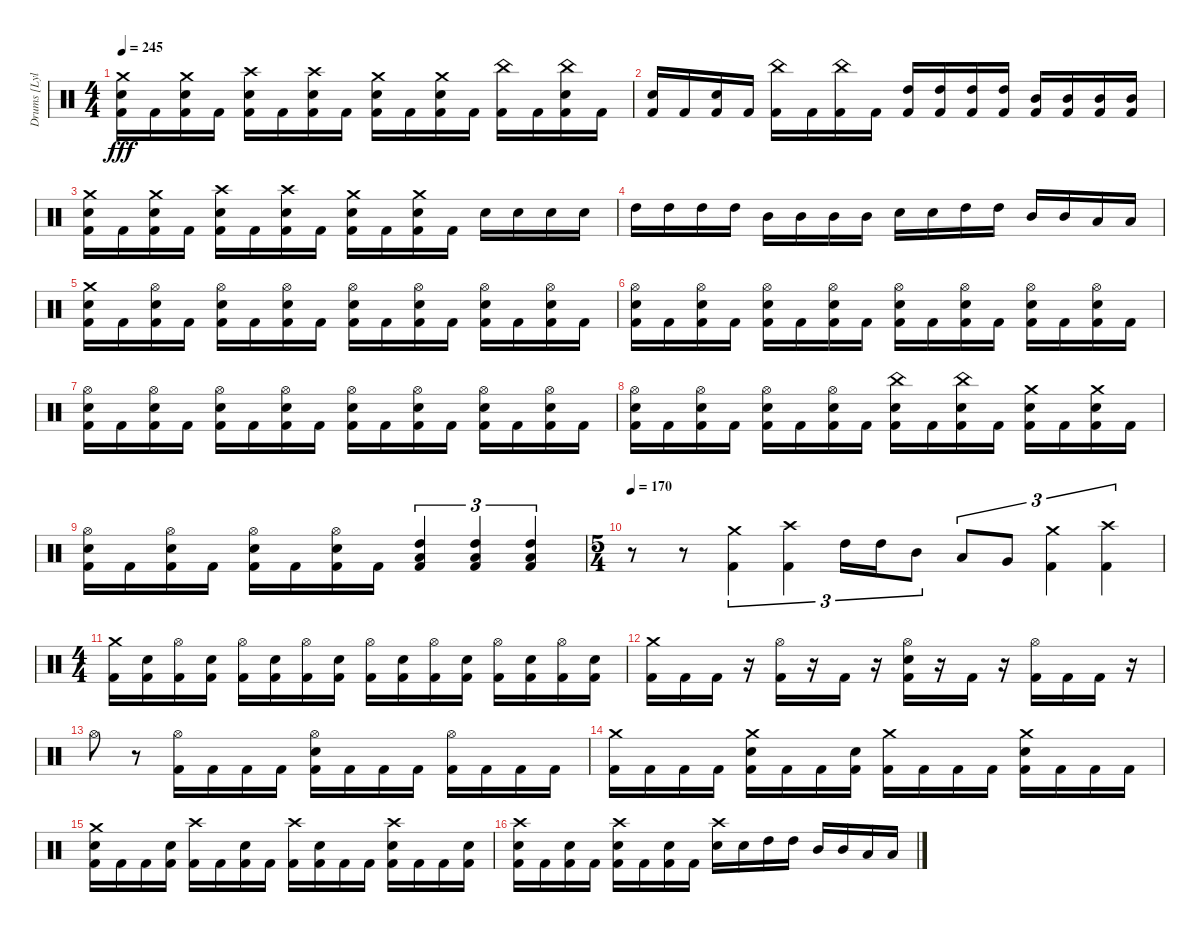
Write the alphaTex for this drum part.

\track ("Drums [Lyle Cooper]" "Drums [Lyl") {instrument percussion}
\staff {score}
\articulation defaults
\ts (4 4)
\tempo 245
\clef neutral
\ks c
("Crash medium (hit)" "Electric Snare (hit)" "Kick (hit) 2").16{dy fff} "Kick (hit) 2".16 ("Crash medium (hit)" "Electric Snare (hit)" "Kick (hit) 2").16 "Kick (hit) 2".16 ("Crash high (hit)" "Electric Snare (hit)" "Kick (hit) 2").16 "Kick (hit) 2".16 ("Crash high (hit)" "Electric Snare (hit)" "Kick (hit) 2").16 "Kick (hit) 2".16 ("Crash medium (hit)" "Electric Snare (hit)" "Kick (hit) 2").16 "Kick (hit) 2".16 ("Crash medium (hit)" "Electric Snare (hit)" "Kick (hit) 2").16 "Kick (hit) 2".16 ("China (hit)" "Kick (hit) 2").16 "Kick (hit) 2".16 ("China (hit)" "Electric Snare (hit)" "Kick (hit) 2").16 "Kick (hit) 2".16 |
("Electric Snare (hit)" "Kick (hit) 2").16 "Kick (hit) 2".16 ("Electric Snare (hit)" "Kick (hit) 2").16 "Kick (hit) 2".16 ("China (hit)" "Kick (hit) 2").16 "Kick (hit) 2".16 ("China (hit)" "Kick (hit) 2").16 "Kick (hit) 2".16 ("High Tom (hit)" "Kick (hit) 2").16 ("High Tom (hit)" "Kick (hit) 2").16 ("High Tom (hit)" "Kick (hit) 2").16 ("High Tom (hit)" "Kick (hit) 2").16 ("Mid Tom (hit)" "Kick (hit) 2").16 ("Mid Tom (hit)" "Kick (hit) 2").16 ("Mid Tom (hit)" "Kick (hit) 2").16 ("Mid Tom (hit)" "Kick (hit) 2").16 |
("Crash medium (hit)" "Electric Snare (hit)" "Kick (hit) 2").16 "Kick (hit) 2".16 ("Crash medium (hit)" "Electric Snare (hit)" "Kick (hit) 2").16 "Kick (hit) 2".16 ("Crash high (hit)" "Electric Snare (hit)" "Kick (hit) 2").16 "Kick (hit) 2".16 ("Crash high (hit)" "Electric Snare (hit)" "Kick (hit) 2").16 "Kick (hit) 2".16 ("Crash medium (hit)" "Electric Snare (hit)" "Kick (hit) 2").16 "Kick (hit) 2".16 ("Crash medium (hit)" "Electric Snare (hit)" "Kick (hit) 2").16 "Kick (hit) 2".16 "Electric Snare (hit)".16 "Electric Snare (hit)".16 "Electric Snare (hit)".16 "Electric Snare (hit)".16 |
"High Tom (hit)".16 "High Tom (hit)".16 "High Tom (hit)".16 "High Tom (hit)".16 "Mid Tom (hit)".16 "Mid Tom (hit)".16 "Mid Tom (hit)".16 "Mid Tom (hit)".16 "Electric Snare (hit)".16 "Electric Snare (hit)".16 "High Tom (hit)".16 "High Tom (hit)".16 "Mid Tom (hit)".16 "Mid Tom (hit)".16 "Low Tom (hit)".16 "Low Tom (hit)".16 |
("Crash medium (hit)" "Electric Snare (hit)" "Kick (hit) 2").16 "Kick (hit) 2".16 ("Hi-Hat (open)" "Electric Snare (hit)" "Kick (hit) 2").16 "Kick (hit) 2".16 ("Hi-Hat (open)" "Electric Snare (hit)" "Kick (hit) 2").16 "Kick (hit) 2".16 ("Hi-Hat (open)" "Electric Snare (hit)" "Kick (hit) 2").16 "Kick (hit) 2".16 ("Hi-Hat (open)" "Electric Snare (hit)" "Kick (hit) 2").16 "Kick (hit) 2".16 ("Hi-Hat (open)" "Electric Snare (hit)" "Kick (hit) 2").16 "Kick (hit) 2".16 ("Hi-Hat (open)" "Electric Snare (hit)" "Kick (hit) 2").16 "Kick (hit) 2".16 ("Hi-Hat (open)" "Electric Snare (hit)" "Kick (hit) 2").16 "Kick (hit) 2".16 |
("Hi-Hat (open)" "Electric Snare (hit)" "Kick (hit) 2").16 "Kick (hit) 2".16 ("Hi-Hat (open)" "Electric Snare (hit)" "Kick (hit) 2").16 "Kick (hit) 2".16 ("Hi-Hat (open)" "Electric Snare (hit)" "Kick (hit) 2").16 "Kick (hit) 2".16 ("Hi-Hat (open)" "Electric Snare (hit)" "Kick (hit) 2").16 "Kick (hit) 2".16 ("Hi-Hat (open)" "Electric Snare (hit)" "Kick (hit) 2").16 "Kick (hit) 2".16 ("Hi-Hat (open)" "Electric Snare (hit)" "Kick (hit) 2").16 "Kick (hit) 2".16 ("Hi-Hat (open)" "Electric Snare (hit)" "Kick (hit) 2").16 "Kick (hit) 2".16 ("Hi-Hat (open)" "Electric Snare (hit)" "Kick (hit) 2").16 "Kick (hit) 2".16 |
("Hi-Hat (open)" "Electric Snare (hit)" "Kick (hit) 2").16 "Kick (hit) 2".16 ("Hi-Hat (open)" "Electric Snare (hit)" "Kick (hit) 2").16 "Kick (hit) 2".16 ("Hi-Hat (open)" "Electric Snare (hit)" "Kick (hit) 2").16 "Kick (hit) 2".16 ("Hi-Hat (open)" "Electric Snare (hit)" "Kick (hit) 2").16 "Kick (hit) 2".16 ("Hi-Hat (open)" "Electric Snare (hit)" "Kick (hit) 2").16 "Kick (hit) 2".16 ("Hi-Hat (open)" "Electric Snare (hit)" "Kick (hit) 2").16 "Kick (hit) 2".16 ("Hi-Hat (open)" "Electric Snare (hit)" "Kick (hit) 2").16 "Kick (hit) 2".16 ("Hi-Hat (open)" "Electric Snare (hit)" "Kick (hit) 2").16 "Kick (hit) 2".16 |
("Hi-Hat (open)" "Electric Snare (hit)" "Kick (hit) 2").16 "Kick (hit) 2".16 ("Hi-Hat (open)" "Electric Snare (hit)" "Kick (hit) 2").16 "Kick (hit) 2".16 ("Hi-Hat (open)" "Electric Snare (hit)" "Kick (hit) 2").16 "Kick (hit) 2".16 ("Hi-Hat (open)" "Electric Snare (hit)" "Kick (hit) 2").16 "Kick (hit) 2".16 ("China (hit)" "Electric Snare (hit)" "Kick (hit) 2").16 "Kick (hit) 2".16 ("China (hit)" "Electric Snare (hit)" "Kick (hit) 2").16 "Kick (hit) 2".16 ("Crash medium (hit)" "Electric Snare (hit)" "Kick (hit) 2").16 "Kick (hit) 2".16 ("Crash medium (hit)" "Electric Snare (hit)" "Kick (hit) 2").16 "Kick (hit) 2".16 |
("Hi-Hat (open)" "Electric Snare (hit)" "Kick (hit) 2").16 "Kick (hit) 2".16 ("Hi-Hat (open)" "Electric Snare (hit)" "Kick (hit) 2").16 "Kick (hit) 2".16 ("Hi-Hat (open)" "Electric Snare (hit)" "Kick (hit) 2").16 "Kick (hit) 2".16 ("Hi-Hat (open)" "Electric Snare (hit)" "Kick (hit) 2").16 "Kick (hit) 2".16 ("Low Tom (hit)" "Kick (hit) 2" "High Tom (hit)").4{tu (3 2)} ("Low Tom (hit)" "Kick (hit) 2" "High Tom (hit)").4{tu (3 2)} ("Low Tom (hit)" "Kick (hit) 2" "High Tom (hit)").4{tu (3 2)} |
\ts (5 4)
\tempo 170
r.8 r.8 ("Crash medium (hit)" "Kick (hit) 2").4{tu (3 2)} ("Crash high (hit)" "Kick (hit) 2").4{tu (3 2)} "High Tom (hit)".16{tu (3 2)} "High Tom (hit)".16{tu (3 2)} "Mid Tom (hit)".8{tu (3 2)} "Low Tom (hit)".8{tu (3 2)} "Very Low Tom (hit)".8{tu (3 2)} ("Crash medium (hit)" "Kick (hit) 2").4{tu (3 2)} ("Crash high (hit)" "Kick (hit) 2").4{tu (3 2)} |
\ts (4 4)
("Crash medium (hit)" "Kick (hit) 2").16 ("Electric Snare (hit)" "Kick (hit) 2").16 ("Hi-Hat (open)" "Kick (hit) 2").16 ("Electric Snare (hit)" "Kick (hit) 2").16 ("Hi-Hat (open)" "Kick (hit) 2").16 ("Electric Snare (hit)" "Kick (hit) 2").16 ("Hi-Hat (open)" "Kick (hit) 2").16 ("Electric Snare (hit)" "Kick (hit) 2").16 ("Hi-Hat (open)" "Kick (hit) 2").16 ("Electric Snare (hit)" "Kick (hit) 2").16 ("Hi-Hat (open)" "Kick (hit) 2").16 ("Electric Snare (hit)" "Kick (hit) 2").16 ("Hi-Hat (open)" "Kick (hit) 2").16 ("Electric Snare (hit)" "Kick (hit) 2").16 ("Hi-Hat (open)" "Kick (hit) 2").16 ("Electric Snare (hit)" "Kick (hit) 2").16 |
("Crash medium (hit)" "Kick (hit) 2").16 "Kick (hit) 2".16 "Kick (hit) 2".16 r.16 ("Hi-Hat (open)" "Kick (hit) 2").16 r.16 "Kick (hit) 2".16 r.16 ("Hi-Hat (open)" "Electric Snare (hit)" "Kick (hit) 2").16 r.16 "Kick (hit) 2".16 r.16 ("Hi-Hat (open)" "Kick (hit) 2").16 "Kick (hit) 2".16 "Kick (hit) 2".16 r.16 |
"Hi-Hat (open)".8 r.8 ("Hi-Hat (open)" "Kick (hit) 2").16 "Kick (hit) 2".16 "Kick (hit) 2".16 "Kick (hit) 2".16 ("Hi-Hat (open)" "Electric Snare (hit)" "Kick (hit) 2").16 "Kick (hit) 2".16 "Kick (hit) 2".16 "Kick (hit) 2".16 ("Hi-Hat (open)" "Kick (hit) 2").16 "Kick (hit) 2".16 "Kick (hit) 2".16 "Kick (hit) 2".16 |
("Crash medium (hit)" "Kick (hit) 2").16 "Kick (hit) 2".16 "Kick (hit) 2".16 "Kick (hit) 2".16 ("Crash medium (hit)" "Electric Snare (hit)" "Kick (hit) 2").16 "Kick (hit) 2".16 "Kick (hit) 2".16 ("Electric Snare (hit)" "Kick (hit) 2").16 ("Crash medium (hit)" "Kick (hit) 2").16 "Kick (hit) 2".16 "Kick (hit) 2".16 "Kick (hit) 2".16 ("Crash medium (hit)" "Electric Snare (hit)" "Kick (hit) 2").16 "Kick (hit) 2".16 "Kick (hit) 2".16 "Kick (hit) 2".16 |
("Crash medium (hit)" "Electric Snare (hit)" "Kick (hit) 2").16 "Kick (hit) 2".16 "Kick (hit) 2".16 ("Electric Snare (hit)" "Kick (hit) 2").16 ("Crash high (hit)" "Kick (hit) 2").16 "Kick (hit) 2".16 ("Electric Snare (hit)" "Kick (hit) 2").16 "Kick (hit) 2".16 ("Crash high (hit)" "Kick (hit) 2").16 ("Electric Snare (hit)" "Kick (hit) 2").16 "Kick (hit) 2".16 "Kick (hit) 2".16 ("Crash high (hit)" "Electric Snare (hit)" "Kick (hit) 2").16 "Kick (hit) 2".16 "Kick (hit) 2".16 ("Electric Snare (hit)" "Kick (hit) 2").16 |
("Crash high (hit)" "Electric Snare (hit)" "Kick (hit) 2").16 "Kick (hit) 2".16 ("Electric Snare (hit)" "Kick (hit) 2").16 "Kick (hit) 2".16 ("Crash high (hit)" "Electric Snare (hit)" "Kick (hit) 2").16 "Kick (hit) 2".16 ("Electric Snare (hit)" "Kick (hit) 2").16 "Kick (hit) 2".16 ("Crash high (hit)" "Electric Snare (hit)").16 "Electric Snare (hit)".16 "High Tom (hit)".16 "High Tom (hit)".16 "Mid Tom (hit)".16 "Mid Tom (hit)".16 "Low Tom (hit)".16 "Low Tom (hit)".16
